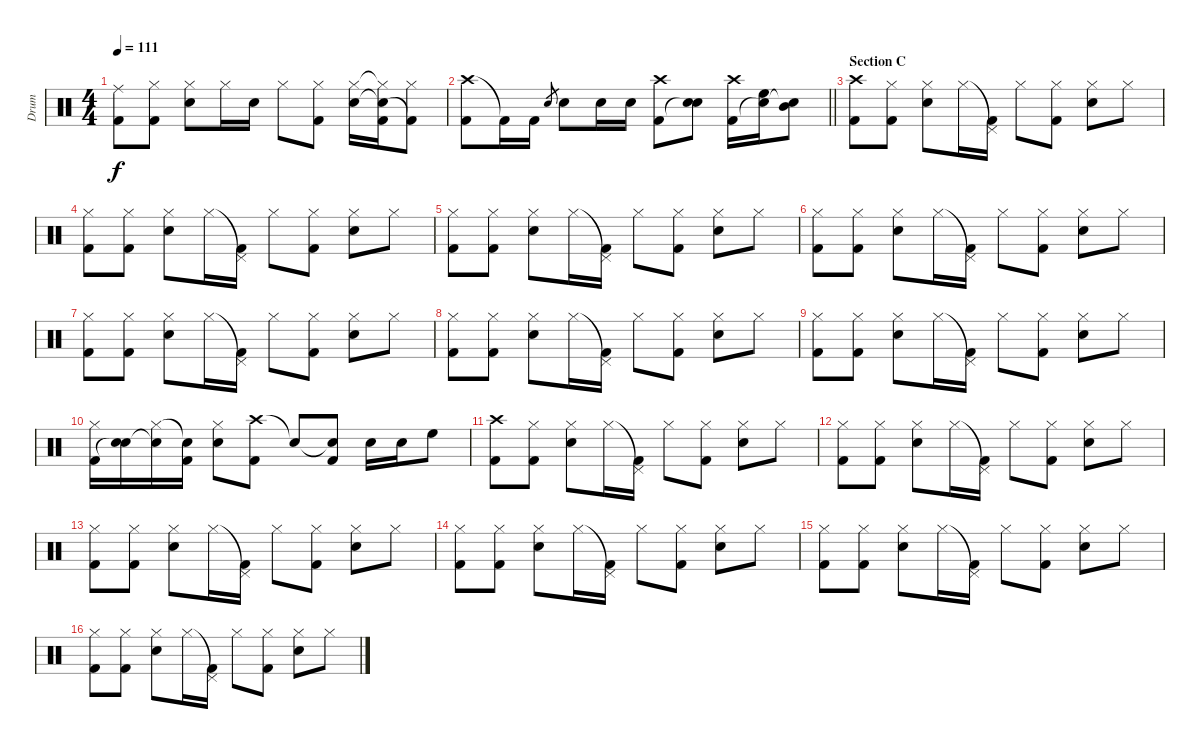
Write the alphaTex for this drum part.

\track ("Drum" "Drum") {instrument percussion}
\staff {score}
\articulation defaults
\ts (4 4)
\tempo 111
\clef neutral
\ks c
("Ride (middle)" "Kick (hit) 2").8{dy f} ("Hi-Hat (closed)" "Kick (hit) 2").8 ("Hi-Hat (closed)" "Snare (hit) 2").8 "Hi-Hat (closed)".16 "Snare (hit) 2".16 "Hi-Hat (closed)".8 ("Hi-Hat (closed)" "Kick (hit) 2").8 ("Hi-Hat (closed)" "Snare (hit) 2").16 ("Hi-Hat (closed)"{t} "Snare (hit)"{t} "Kick (hit) 2").16 ("Hi-Hat (closed)" "Kick (hit) 2"{t}).8 |
\barLineRight lightlight
("Crash high (hit)" "Kick (hit) 2").8 "Kick (hit) 2"{t}.16 "Kick (hit) 2".16 "Snare (hit) 2".8{gr} "Snare (hit) 2".8 "Snare (hit) 2".16 "Snare (hit) 2".16 ("Crash high (hit)" "Kick (hit) 2").8 ("Snare (hit) 2" "Snare (hit)"{t}).8 ("Crash high (hit)" "Kick (hit) 2").16 ("High Floor Tom (hit)" "Snare (hit)"{t}).16 ("Mid Tom (hit)" "Snare (hit)"{t}).8 |
\section ("" "Section C")
("Crash high (hit)" "Kick (hit) 2").8 ("Hi-Hat (closed)" "Kick (hit) 2").8 ("Hi-Hat (closed)" "Snare (hit) 2").8 "Hi-Hat (closed)".16 ("Pedal Hi-Hat (hit)"{t} "Kick (hit) 2").16 "Hi-Hat (closed)".8 ("Hi-Hat (closed)" "Kick (hit) 2").8 ("Hi-Hat (closed)" "Snare (hit) 2").8 "Hi-Hat (closed)".8 |
("Hi-Hat (closed)" "Kick (hit) 2").8 ("Hi-Hat (closed)" "Kick (hit) 2").8 ("Hi-Hat (closed)" "Snare (hit) 2").8 "Hi-Hat (closed)".16 ("Pedal Hi-Hat (hit)"{t} "Kick (hit) 2").16 "Hi-Hat (closed)".8 ("Hi-Hat (closed)" "Kick (hit) 2").8 ("Hi-Hat (closed)" "Snare (hit) 2").8 "Hi-Hat (closed)".8 |
("Hi-Hat (closed)" "Kick (hit) 2").8 ("Hi-Hat (closed)" "Kick (hit) 2").8 ("Hi-Hat (closed)" "Snare (hit) 2").8 "Hi-Hat (closed)".16 ("Pedal Hi-Hat (hit)"{t} "Kick (hit) 2").16 "Hi-Hat (closed)".8 ("Hi-Hat (closed)" "Kick (hit) 2").8 ("Hi-Hat (closed)" "Snare (hit) 2").8 "Hi-Hat (closed)".8 |
("Hi-Hat (closed)" "Kick (hit) 2").8 ("Hi-Hat (closed)" "Kick (hit) 2").8 ("Hi-Hat (closed)" "Snare (hit) 2").8 "Hi-Hat (closed)".16 ("Pedal Hi-Hat (hit)"{t} "Kick (hit) 2").16 "Hi-Hat (closed)".8 ("Hi-Hat (closed)" "Kick (hit) 2").8 ("Hi-Hat (closed)" "Snare (hit) 2").8 "Hi-Hat (closed)".8 |
("Hi-Hat (closed)" "Kick (hit) 2").8 ("Hi-Hat (closed)" "Kick (hit) 2").8 ("Hi-Hat (closed)" "Snare (hit) 2").8 "Hi-Hat (closed)".16 ("Pedal Hi-Hat (hit)"{t} "Kick (hit) 2").16 "Hi-Hat (closed)".8 ("Hi-Hat (closed)" "Kick (hit) 2").8 ("Hi-Hat (closed)" "Snare (hit) 2").8 "Hi-Hat (closed)".8 |
("Hi-Hat (closed)" "Kick (hit) 2").8 ("Hi-Hat (closed)" "Kick (hit) 2").8 ("Hi-Hat (closed)" "Snare (hit) 2").8 "Hi-Hat (closed)".16 ("Pedal Hi-Hat (hit)"{t} "Kick (hit) 2").16 "Hi-Hat (closed)".8 ("Hi-Hat (closed)" "Kick (hit) 2").8 ("Hi-Hat (closed)" "Snare (hit) 2").8 "Hi-Hat (closed)".8 |
("Hi-Hat (closed)" "Kick (hit) 2").8 ("Hi-Hat (closed)" "Kick (hit) 2").8 ("Hi-Hat (closed)" "Snare (hit) 2").8 "Hi-Hat (closed)".16 ("Pedal Hi-Hat (hit)"{t} "Kick (hit) 2").16 "Hi-Hat (closed)".8 ("Hi-Hat (closed)" "Kick (hit) 2").8 ("Hi-Hat (closed)" "Snare (hit) 2").8 "Hi-Hat (closed)".8 |
("Hi-Hat (closed)" "Kick (hit) 2").16 ("Snare (hit) 2" "Snare (hit)"{t}).16 ("Hi-Hat (closed)" "Snare (hit)"{t}).16 ("Snare (hit)"{t} "Kick (hit) 2").16 ("Hi-Hat (closed)" "Snare (hit) 2").8 ("Crash high (hit)" "Kick (hit) 2").8 "Snare (hit)"{t}.8 ("Snare (hit)"{t} "Kick (hit) 2").8 "Snare (hit) 2".16 "Snare (hit) 2".16 "High Floor Tom (hit)".8 |
("Crash high (hit)" "Kick (hit) 2").8 ("Hi-Hat (closed)" "Kick (hit) 2").8 ("Hi-Hat (closed)" "Snare (hit) 2").8 "Hi-Hat (closed)".16 ("Pedal Hi-Hat (hit)"{t} "Kick (hit) 2").16 "Hi-Hat (closed)".8 ("Hi-Hat (closed)" "Kick (hit) 2").8 ("Hi-Hat (closed)" "Snare (hit) 2").8 "Hi-Hat (closed)".8 |
("Hi-Hat (closed)" "Kick (hit) 2").8 ("Hi-Hat (closed)" "Kick (hit) 2").8 ("Hi-Hat (closed)" "Snare (hit) 2").8 "Hi-Hat (closed)".16 ("Pedal Hi-Hat (hit)"{t} "Kick (hit) 2").16 "Hi-Hat (closed)".8 ("Hi-Hat (closed)" "Kick (hit) 2").8 ("Hi-Hat (closed)" "Snare (hit) 2").8 "Hi-Hat (closed)".8 |
("Hi-Hat (closed)" "Kick (hit) 2").8 ("Hi-Hat (closed)" "Kick (hit) 2").8 ("Hi-Hat (closed)" "Snare (hit) 2").8 "Hi-Hat (closed)".16 ("Pedal Hi-Hat (hit)"{t} "Kick (hit) 2").16 "Hi-Hat (closed)".8 ("Hi-Hat (closed)" "Kick (hit) 2").8 ("Hi-Hat (closed)" "Snare (hit) 2").8 "Hi-Hat (closed)".8 |
("Hi-Hat (closed)" "Kick (hit) 2").8 ("Hi-Hat (closed)" "Kick (hit) 2").8 ("Hi-Hat (closed)" "Snare (hit) 2").8 "Hi-Hat (closed)".16 ("Pedal Hi-Hat (hit)"{t} "Kick (hit) 2").16 "Hi-Hat (closed)".8 ("Hi-Hat (closed)" "Kick (hit) 2").8 ("Hi-Hat (closed)" "Snare (hit) 2").8 "Hi-Hat (closed)".8 |
("Hi-Hat (closed)" "Kick (hit) 2").8 ("Hi-Hat (closed)" "Kick (hit) 2").8 ("Hi-Hat (closed)" "Snare (hit) 2").8 "Hi-Hat (closed)".16 ("Pedal Hi-Hat (hit)"{t} "Kick (hit) 2").16 "Hi-Hat (closed)".8 ("Hi-Hat (closed)" "Kick (hit) 2").8 ("Hi-Hat (closed)" "Snare (hit) 2").8 "Hi-Hat (closed)".8 |
("Hi-Hat (closed)" "Kick (hit) 2").8 ("Hi-Hat (closed)" "Kick (hit) 2").8 ("Hi-Hat (closed)" "Snare (hit) 2").8 "Hi-Hat (closed)".16 ("Pedal Hi-Hat (hit)"{t} "Kick (hit) 2").16 "Hi-Hat (closed)".8 ("Hi-Hat (closed)" "Kick (hit) 2").8 ("Hi-Hat (closed)" "Snare (hit) 2").8 "Hi-Hat (closed)".8
